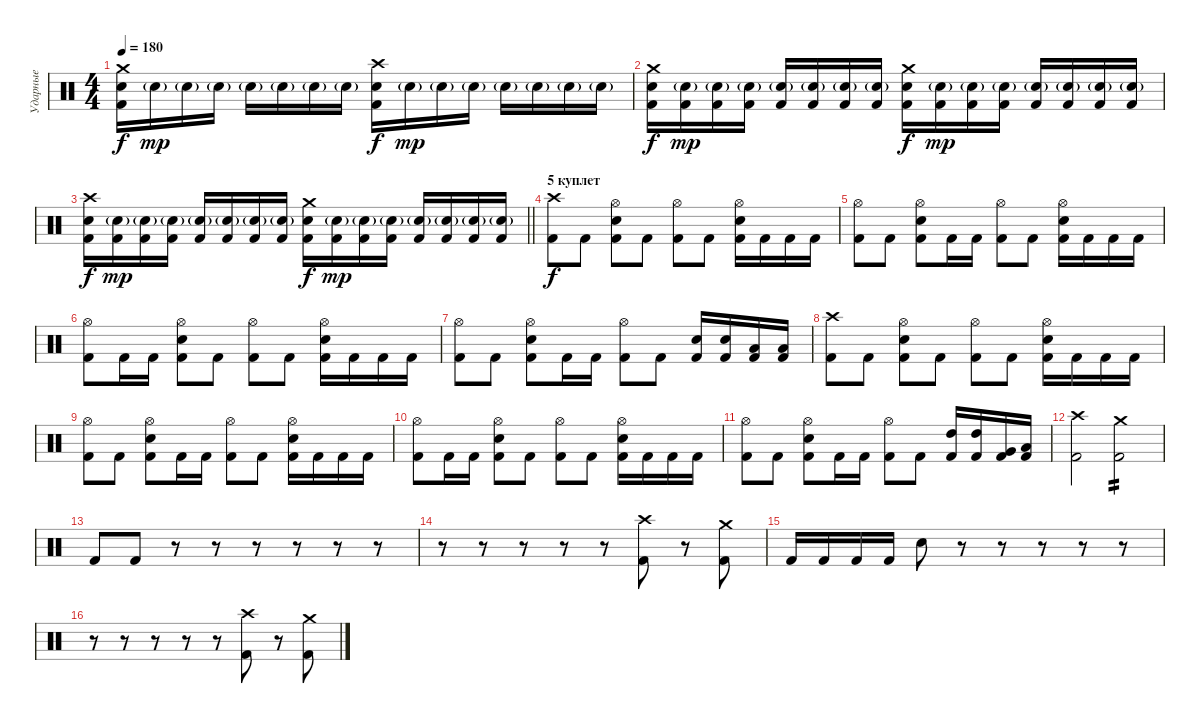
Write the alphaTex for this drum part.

\track ("Ударные" "Ударные") {instrument percussion}
\staff {score}
\articulation defaults
\ts (4 4)
\tempo 180
\clef neutral
\ks c
("Crash medium (hit)" "Snare (hit) 2" "Kick (hit) 2").16{dy f} "Snare (hit) 2"{g}.16{dy mp} "Snare (hit) 2"{g}.16 "Snare (hit) 2"{g}.16 "Snare (hit) 2"{g}.16 "Snare (hit) 2"{g}.16 "Snare (hit) 2"{g}.16 "Snare (hit) 2"{g}.16 ("Crash high (hit)" "Snare (hit) 2" "Kick (hit) 2").16{dy f} "Snare (hit) 2"{g}.16{dy mp} "Snare (hit) 2"{g}.16 "Snare (hit) 2"{g}.16 "Snare (hit) 2"{g}.16 "Snare (hit) 2"{g}.16 "Snare (hit) 2"{g}.16 "Snare (hit) 2"{g}.16 |
("Crash medium (hit)" "Snare (hit) 2" "Kick (hit) 2").16{dy f} ("Snare (hit) 2"{g} "Kick (hit) 2").16{dy mp} ("Snare (hit) 2"{g} "Kick (hit) 2").16 ("Snare (hit) 2"{g} "Kick (hit) 2").16 ("Snare (hit) 2"{g} "Kick (hit) 2").16 ("Snare (hit) 2"{g} "Kick (hit) 2").16 ("Snare (hit) 2"{g} "Kick (hit) 2").16 ("Snare (hit) 2"{g} "Kick (hit) 2").16 ("Crash medium (hit)" "Snare (hit) 2" "Kick (hit) 2").16{dy f} ("Snare (hit) 2"{g} "Kick (hit) 2").16{dy mp} ("Snare (hit) 2"{g} "Kick (hit) 2").16 ("Snare (hit) 2"{g} "Kick (hit) 2").16 ("Snare (hit) 2"{g} "Kick (hit) 2").16 ("Snare (hit) 2"{g} "Kick (hit) 2").16 ("Snare (hit) 2"{g} "Kick (hit) 2").16 ("Snare (hit) 2"{g} "Kick (hit) 2").16 |
\barLineRight lightlight
("Crash high (hit)" "Snare (hit) 2" "Kick (hit) 2").16{dy f} ("Snare (hit) 2"{g} "Kick (hit) 2").16{dy mp} ("Snare (hit) 2"{g} "Kick (hit) 2").16 ("Snare (hit) 2"{g} "Kick (hit) 2").16 ("Snare (hit) 2"{g} "Kick (hit) 2").16 ("Snare (hit) 2"{g} "Kick (hit) 2").16 ("Snare (hit) 2"{g} "Kick (hit) 2").16 ("Snare (hit) 2"{g} "Kick (hit) 2").16 ("Crash medium (hit)" "Snare (hit) 2" "Kick (hit) 2").16{dy f} ("Snare (hit) 2"{g} "Kick (hit) 2").16{dy mp} ("Snare (hit) 2"{g} "Kick (hit) 2").16 ("Snare (hit) 2"{g} "Kick (hit) 2").16 ("Snare (hit) 2"{g} "Kick (hit) 2").16 ("Snare (hit) 2"{g} "Kick (hit) 2").16 ("Snare (hit) 2"{g} "Kick (hit) 2").16 ("Snare (hit) 2"{g} "Kick (hit) 2").16 |
\section ("" "5 куплет")
("Crash high (hit)" "Kick (hit) 2").8{dy f} "Kick (hit) 2".8 ("Snare (hit) 2" "Hi-Hat (open)" "Kick (hit) 2").8 "Kick (hit) 2".8 ("Hi-Hat (open)" "Kick (hit) 2").8 "Kick (hit) 2".8 ("Snare (hit) 2" "Hi-Hat (open)" "Kick (hit) 2").16 "Kick (hit) 2".16 "Kick (hit) 2".16 "Kick (hit) 2".16 |
("Hi-Hat (open)" "Kick (hit) 2").8 "Kick (hit) 2".8 ("Snare (hit) 2" "Hi-Hat (open)" "Kick (hit) 2").8 "Kick (hit) 2".16 "Kick (hit) 2".16 ("Hi-Hat (open)" "Kick (hit) 2").8 "Kick (hit) 2".8 ("Snare (hit) 2" "Hi-Hat (open)" "Kick (hit) 2").16 "Kick (hit) 2".16 "Kick (hit) 2".16 "Kick (hit) 2".16 |
("Hi-Hat (open)" "Kick (hit) 2").8 "Kick (hit) 2".16 "Kick (hit) 2".16 ("Snare (hit) 2" "Hi-Hat (open)" "Kick (hit) 2").8 "Kick (hit) 2".8 ("Hi-Hat (open)" "Kick (hit) 2").8 "Kick (hit) 2".8 ("Snare (hit) 2" "Hi-Hat (open)" "Kick (hit) 2").16 "Kick (hit) 2".16 "Kick (hit) 2".16 "Kick (hit) 2".16 |
("Hi-Hat (open)" "Kick (hit) 2").8 "Kick (hit) 2".8 ("Snare (hit) 2" "Hi-Hat (open)" "Kick (hit) 2").8 "Kick (hit) 2".16 "Kick (hit) 2".16 ("Hi-Hat (open)" "Kick (hit) 2").8 "Kick (hit) 2".8 ("Snare (hit) 2" "Kick (hit) 2").16 ("Snare (hit) 2" "Kick (hit) 2").16 ("Low Tom (hit)" "Kick (hit) 2").16 ("Low Floor Tom (hit)" "Kick (hit) 2").16 |
("Crash high (hit)" "Kick (hit) 2").8 "Kick (hit) 2".8 ("Snare (hit) 2" "Hi-Hat (open)" "Kick (hit) 2").8 "Kick (hit) 2".8 ("Hi-Hat (open)" "Kick (hit) 2").8 "Kick (hit) 2".8 ("Snare (hit) 2" "Hi-Hat (open)" "Kick (hit) 2").16 "Kick (hit) 2".16 "Kick (hit) 2".16 "Kick (hit) 2".16 |
("Hi-Hat (open)" "Kick (hit) 2").8 "Kick (hit) 2".8 ("Snare (hit) 2" "Hi-Hat (open)" "Kick (hit) 2").8 "Kick (hit) 2".16 "Kick (hit) 2".16 ("Hi-Hat (open)" "Kick (hit) 2").8 "Kick (hit) 2".8 ("Snare (hit) 2" "Hi-Hat (open)" "Kick (hit) 2").16 "Kick (hit) 2".16 "Kick (hit) 2".16 "Kick (hit) 2".16 |
("Hi-Hat (open)" "Kick (hit) 2").8 "Kick (hit) 2".16 "Kick (hit) 2".16 ("Snare (hit) 2" "Hi-Hat (open)" "Kick (hit) 2").8 "Kick (hit) 2".8 ("Hi-Hat (open)" "Kick (hit) 2").8 "Kick (hit) 2".8 ("Snare (hit) 2" "Hi-Hat (open)" "Kick (hit) 2").16 "Kick (hit) 2".16 "Kick (hit) 2".16 "Kick (hit) 2".16 |
("Hi-Hat (open)" "Kick (hit) 2").8 "Kick (hit) 2".8 ("Snare (hit) 2" "Hi-Hat (open)" "Kick (hit) 2").8 "Kick (hit) 2".16 "Kick (hit) 2".16 ("Hi-Hat (open)" "Kick (hit) 2").8 "Kick (hit) 2".8 ("High Tom (hit)" "Kick (hit) 2").16 ("High Tom (hit)" "Kick (hit) 2").16 ("Very Low Tom (hit)" "Kick (hit) 2").16 ("Low Floor Tom (hit)" "Kick (hit) 2").16 |
("Crash high (hit)" "Kick (hit) 2").2 ("Crash medium (hit)" "Kick (hit) 2").2{tp 2} |
"Kick (hit) 2".8 "Kick (hit) 2".8 r.8 r.8 r.8 r.8 r.8 r.8 |
r.8 r.8 r.8 r.8 r.8 ("Crash high (hit)" "Kick (hit) 2").8 r.8 ("Crash medium (hit)" "Kick (hit) 2").8 |
"Kick (hit) 2".16 "Kick (hit) 2".16 "Kick (hit) 2".16 "Kick (hit) 2".16 "Snare (hit) 2".8 r.8 r.8 r.8 r.8 r.8 |
r.8 r.8 r.8 r.8 r.8 ("Crash high (hit)" "Kick (hit) 2").8 r.8 ("Crash medium (hit)" "Kick (hit) 2").8
